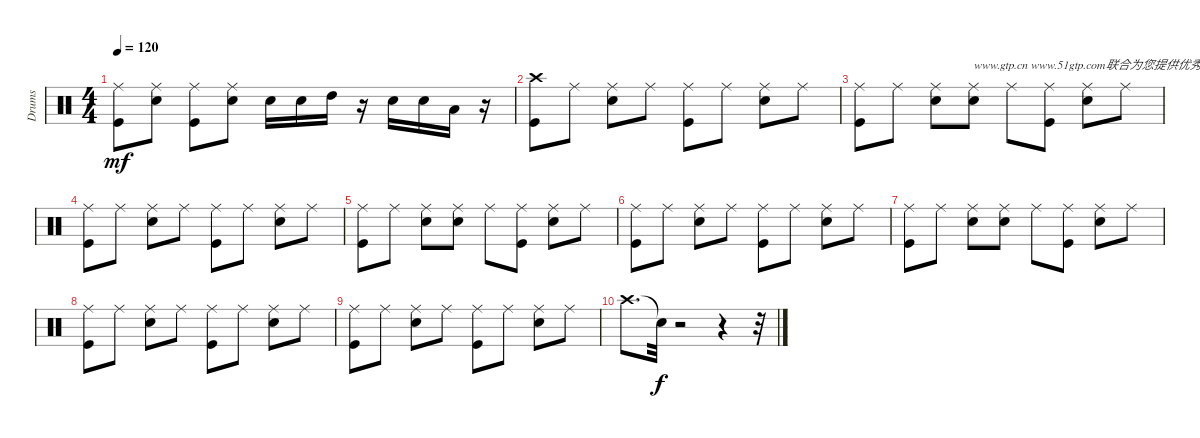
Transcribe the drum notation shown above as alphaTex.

\track ("Drums" "Drums") {instrument percussion}
\staff {score}
\articulation defaults
\ts (4 4)
\tempo 120
\clef neutral
\ks c
("Kick (hit)" "Ride (middle)").8{dy mf} ("Snare (hit) 2" "Ride (middle)").8 ("Kick (hit)" "Ride (middle)").8 ("Snare (hit) 2" "Ride (middle)").8 "Snare (hit) 2".16 "Snare (hit) 2".16 "High Tom (hit)".16 r.16 "Snare (hit) 2".16 "Snare (hit) 2".16 "Low Floor Tom (hit)".16 r.16 |
("Kick (hit)" "Crash high (hit)").8 "Ride (middle)".8 ("Snare (hit) 2" "Ride (middle)").8 "Ride (middle)".8 ("Kick (hit)" "Ride (middle)").8 "Ride (middle)".8 ("Snare (hit) 2" "Ride (middle)").8 "Ride (middle)".8 |
("Ride (middle)" "Kick (hit)").8 "Ride (middle)".8 ("Snare (hit) 2" "Ride (middle)").8 ("Snare (hit) 2" "Ride (middle)").8{txt "www.gtp.cn www.51gtp.com联合为您提供优秀的GTP!"} "Ride (middle)".8 ("Ride (middle)" "Kick (hit)").8 ("Snare (hit) 2" "Ride (middle)").8 "Ride (middle)".8 |
("Ride (middle)" "Kick (hit)").8 "Ride (middle)".8 ("Snare (hit) 2" "Ride (middle)").8 "Ride (middle)".8 ("Ride (middle)" "Kick (hit)").8 "Ride (middle)".8 ("Snare (hit) 2" "Ride (middle)").8 "Ride (middle)".8 |
("Ride (middle)" "Kick (hit)").8 "Ride (middle)".8 ("Snare (hit) 2" "Ride (middle)").8 ("Snare (hit) 2" "Ride (middle)").8 "Ride (middle)".8 ("Ride (middle)" "Kick (hit)").8 ("Snare (hit) 2" "Ride (middle)").8 "Ride (middle)".8 |
("Ride (middle)" "Kick (hit)").8 "Ride (middle)".8 ("Snare (hit) 2" "Ride (middle)").8 "Ride (middle)".8 ("Ride (middle)" "Kick (hit)").8 "Ride (middle)".8 ("Snare (hit) 2" "Ride (middle)").8 "Ride (middle)".8 |
("Ride (middle)" "Kick (hit)").8 "Ride (middle)".8 ("Snare (hit) 2" "Ride (middle)").8 ("Snare (hit) 2" "Ride (middle)").8 "Ride (middle)".8 ("Ride (middle)" "Kick (hit)").8 ("Snare (hit) 2" "Ride (middle)").8 "Ride (middle)".8 |
("Kick (hit)" "Ride (middle)").8 "Ride (middle)".8 ("Snare (hit) 2" "Ride (middle)").8 "Ride (middle)".8 ("Kick (hit)" "Ride (middle)").8 "Ride (middle)".8 ("Snare (hit) 2" "Ride (middle)").8 "Ride (middle)".8 |
("Kick (hit)" "Ride (middle)").8 "Ride (middle)".8 ("Snare (hit) 2" "Ride (middle)").8 "Ride (middle)".8 ("Ride (middle)" "Kick (hit)").8 "Ride (middle)".8 ("Snare (hit) 2" "Ride (middle)").8 "Ride (middle)".8 |
"Crash high (hit)".8{d} "Snare (hit)"{t}.32{dy f} r.2 r.4 r.32
